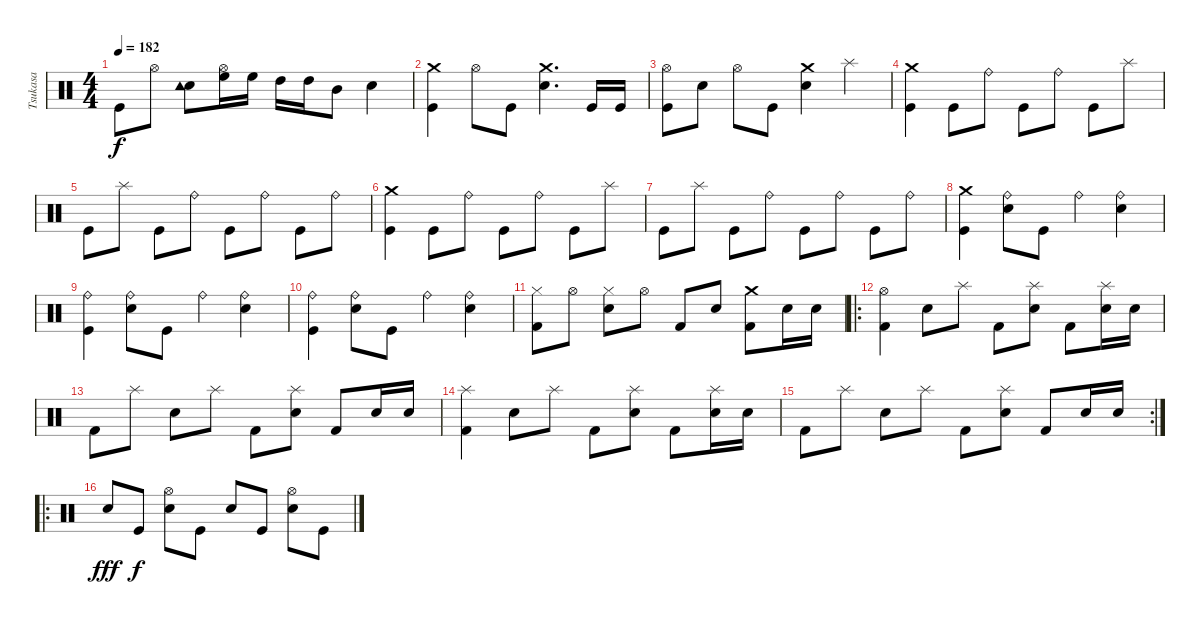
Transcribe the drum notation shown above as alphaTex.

\track ("Tsukasa" "Tsukasa") {instrument percussion}
\staff {score}
\articulation defaults
\ts (4 4)
\tempo 182
\clef neutral
\ks c "Kick (hit)".8{dy f} "Hi-Hat (open)".8
("Electric Snare (hit)" "Tambourine (hit)").8 ("High Floor Tom (hit)" "Hi-Hat (open)").16 "High Floor Tom (hit)".16 "High Tom (hit)".16 "High Tom (hit)".16 "Mid Tom (hit)".8 "Electric Snare (hit)".4 |
("Kick (hit)" "Crash medium (hit)").4 "Hi-Hat (open)".8 "Kick (hit)".8 ("Electric Snare (hit)" "Crash medium (hit)").4{d} "Kick (hit)".16 "Kick (hit)".16 |
("Kick (hit)" "Hi-Hat (open)").8 "Electric Snare (hit)".8 "Hi-Hat (open)".8 "Kick (hit)".8 ("Electric Snare (hit)" "Crash medium (hit)").4 "Splash (hit)".4 |
("Kick (hit)" "Crash medium (hit)").4 "Kick (hit)".8 "Ride (bell)".8 "Kick (hit)".8 "Ride (bell)".8 "Kick (hit)".8 "Splash (hit)".8 |
"Kick (hit)".8 "Splash (hit)".8 "Kick (hit)".8 "Ride (bell)".8 "Kick (hit)".8 "Ride (bell)".8 "Kick (hit)".8 "Ride (bell)".8 |
("Kick (hit)" "Crash medium (hit)").4 "Kick (hit)".8 "Ride (bell)".8 "Kick (hit)".8 "Ride (bell)".8 "Kick (hit)".8 "Splash (hit)".8 |
"Kick (hit)".8 "Splash (hit)".8 "Kick (hit)".8 "Ride (bell)".8 "Kick (hit)".8 "Ride (bell)".8 "Kick (hit)".8 "Ride (bell)".8 |
("Kick (hit)" "Crash medium (hit)").4 ("Electric Snare (hit)" "Ride (bell)").8 "Kick (hit)".8 "Ride (bell)".4 ("Electric Snare (hit)" "Ride (bell)").4 |
("Kick (hit)" "Ride (bell)").4 ("Electric Snare (hit)" "Ride (bell)").8 "Kick (hit)".8 "Ride (bell)".4 ("Electric Snare (hit)" "Ride (bell)").4 |
("Kick (hit)" "Ride (bell)").4 ("Electric Snare (hit)" "Ride (bell)").8 "Kick (hit)".8 "Ride (bell)".4 ("Electric Snare (hit)" "Ride (bell)").4 |
("Kick (hit) 2" "Hi-Hat (closed)").8 "Hi-Hat (open)".8 ("Electric Snare (hit)" "Hi-Hat (closed)").8 "Hi-Hat (open)".8 "Kick (hit) 2".8 "Electric Snare (hit)".8 ("Kick (hit) 2" "Crash medium (hit)").8 "Electric Snare (hit)".16 "Electric Snare (hit)".16 |
\ro
("Kick (hit) 2" "Hi-Hat (open)").4 "Electric Snare (hit)".8 "Splash (hit)".8 "Kick (hit) 2".8 ("Electric Snare (hit)" "Splash (hit)").8 "Kick (hit) 2".8 ("Electric Snare (hit)" "Splash (hit)").16 "Electric Snare (hit)".16 |
"Kick (hit) 2".8 "Splash (hit)".8 "Electric Snare (hit)".8 "Splash (hit)".8 "Kick (hit) 2".8 ("Electric Snare (hit)" "Splash (hit)").8 "Kick (hit) 2".8 "Electric Snare (hit)".16 "Electric Snare (hit)".16 |
("Kick (hit) 2" "Splash (hit)").4 "Electric Snare (hit)".8 "Splash (hit)".8 "Kick (hit) 2".8 ("Electric Snare (hit)" "Splash (hit)").8 "Kick (hit) 2".8 ("Electric Snare (hit)" "Splash (hit)").16 "Electric Snare (hit)".16 |
\rc 2 "Kick (hit) 2".8 "Splash (hit)".8 "Electric Snare (hit)".8 "Splash (hit)".8 "Kick (hit) 2".8
("Electric Snare (hit)" "Splash (hit)").8 "Kick (hit) 2".8 "Electric Snare (hit)".16 "Electric Snare (hit)".16 |
\ro "Electric Snare (hit)".8{dy fff} "Kick (hit)".8{dy f}
("Electric Snare (hit)" "Hi-Hat (open)").8 "Kick (hit)".8 "Electric Snare (hit)".8 "Kick (hit)".8 ("Electric Snare (hit)" "Hi-Hat (open)").8 "Kick (hit)".8
